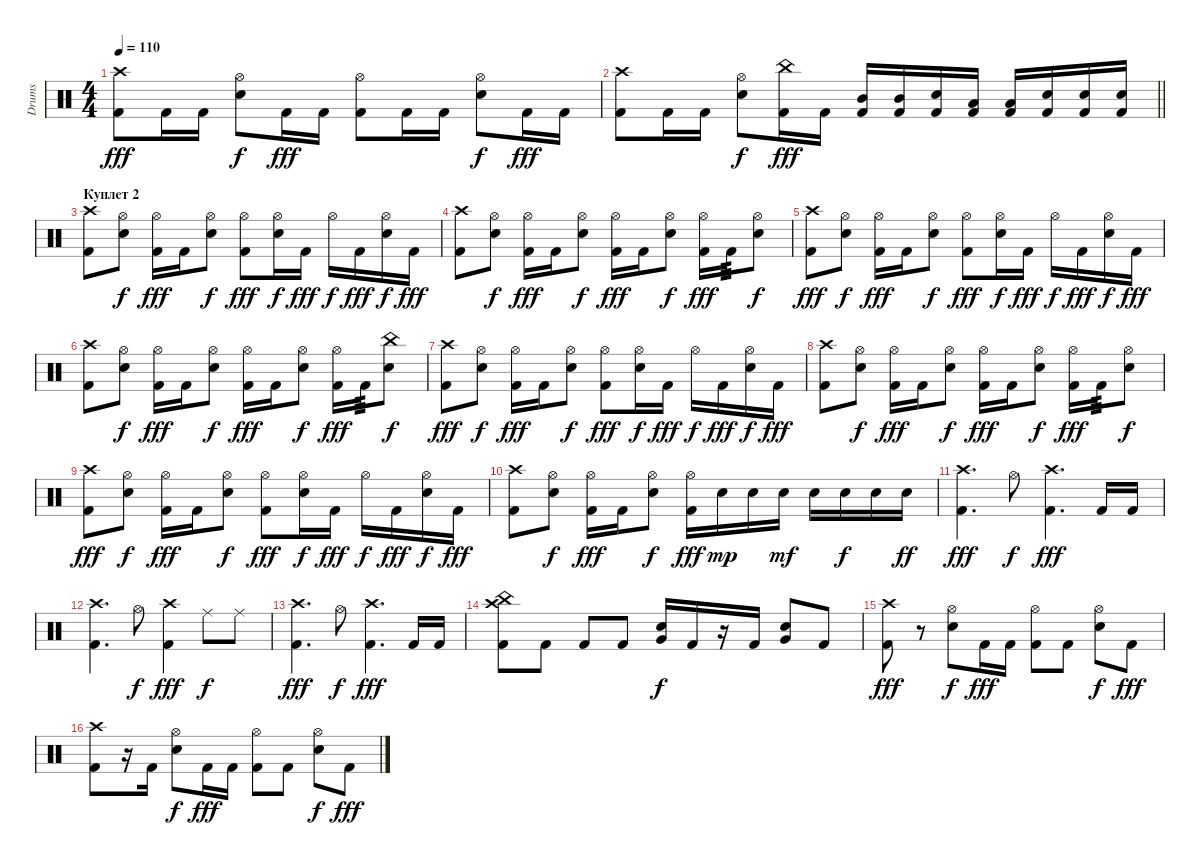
\track ("Drums" "Drums") {instrument percussion}
\staff {score}
\articulation defaults
\ts (4 4)
\tempo 110
\clef neutral
\ks c
("Crash high (hit)" "Kick (hit) 2").8{dy fff} "Kick (hit) 2".16 "Kick (hit) 2".16 ("Hi-Hat (open)" "Snare (hit) 2").8{dy f} "Kick (hit) 2".16{dy fff} "Kick (hit) 2".16 ("Hi-Hat (open)" "Kick (hit) 2").8 "Kick (hit) 2".16 "Kick (hit) 2".16 ("Hi-Hat (open)" "Snare (hit) 2").8{dy f} "Kick (hit) 2".16{dy fff} "Kick (hit) 2".16 |
\barLineRight lightlight
("Crash high (hit)" "Kick (hit) 2").8 "Kick (hit) 2".16 "Kick (hit) 2".16 ("Hi-Hat (open)" "Snare (hit) 2").8{dy f} ("China (hit)" "Kick (hit) 2").16{dy fff} "Kick (hit) 2".16 ("Mid Tom (hit)" "Kick (hit) 2").16 ("Mid Tom (hit)" "Kick (hit) 2").16 ("Snare (hit) 2" "Kick (hit) 2").16 ("Low Tom (hit)" "Kick (hit) 2").16 ("Low Tom (hit)" "Kick (hit) 2").16 ("Snare (hit) 2" "Kick (hit) 2").16 ("Snare (hit) 2" "Kick (hit) 2").16 ("Snare (hit) 2" "Kick (hit) 2").16 |
\section ("" "Куплет 2")
("Crash high (hit)" "Kick (hit) 2").8 ("Hi-Hat (open)" "Snare (hit) 2").8{dy f} ("Hi-Hat (open)" "Kick (hit) 2").16{dy fff} "Kick (hit) 2".16 ("Hi-Hat (open)" "Snare (hit) 2").8{dy f} ("Hi-Hat (open)" "Kick (hit) 2").8{dy fff} ("Hi-Hat (open)" "Snare (hit) 2").16{dy f} "Kick (hit) 2".16{dy fff} "Hi-Hat (open)".16{dy f} "Kick (hit) 2".16{dy fff} ("Hi-Hat (open)" "Snare (hit) 2").16{dy f} "Kick (hit) 2".16{dy fff} |
("Crash high (hit)" "Kick (hit) 2").8 ("Hi-Hat (open)" "Snare (hit) 2").8{dy f} ("Hi-Hat (open)" "Kick (hit) 2").16{dy fff} "Kick (hit) 2".16 ("Hi-Hat (open)" "Snare (hit) 2").8{dy f} ("Hi-Hat (open)" "Kick (hit) 2").16{dy fff} "Kick (hit) 2".16 ("Hi-Hat (open)" "Snare (hit) 2").8{dy f} ("Hi-Hat (open)" "Kick (hit) 2").16{dy fff} "Kick (hit) 2".16{tp 3} ("Hi-Hat (open)" "Snare (hit) 2").8{dy f} |
("Crash high (hit)" "Kick (hit) 2").8{dy fff} ("Hi-Hat (open)" "Snare (hit) 2").8{dy f} ("Hi-Hat (open)" "Kick (hit) 2").16{dy fff} "Kick (hit) 2".16 ("Hi-Hat (open)" "Snare (hit) 2").8{dy f} ("Hi-Hat (open)" "Kick (hit) 2").8{dy fff} ("Hi-Hat (open)" "Snare (hit) 2").16{dy f} "Kick (hit) 2".16{dy fff} "Hi-Hat (open)".16{dy f} "Kick (hit) 2".16{dy fff} ("Hi-Hat (open)" "Snare (hit) 2").16{dy f} "Kick (hit) 2".16{dy fff} |
("Crash high (hit)" "Kick (hit) 2").8 ("Hi-Hat (open)" "Snare (hit) 2").8{dy f} ("Hi-Hat (open)" "Kick (hit) 2").16{dy fff} "Kick (hit) 2".16 ("Hi-Hat (open)" "Snare (hit) 2").8{dy f} ("Hi-Hat (open)" "Kick (hit) 2").16{dy fff} "Kick (hit) 2".16 ("Hi-Hat (open)" "Snare (hit) 2").8{dy f} ("Hi-Hat (open)" "Kick (hit) 2").16{dy fff} "Kick (hit) 2".16{tp 3} ("China (hit)" "Snare (hit) 2").8{dy f} |
("Crash high (hit)" "Kick (hit) 2").8{dy fff} ("Hi-Hat (open)" "Snare (hit) 2").8{dy f} ("Hi-Hat (open)" "Kick (hit) 2").16{dy fff} "Kick (hit) 2".16 ("Hi-Hat (open)" "Snare (hit) 2").8{dy f} ("Hi-Hat (open)" "Kick (hit) 2").8{dy fff} ("Hi-Hat (open)" "Snare (hit) 2").16{dy f} "Kick (hit) 2".16{dy fff} "Hi-Hat (open)".16{dy f} "Kick (hit) 2".16{dy fff} ("Hi-Hat (open)" "Snare (hit) 2").16{dy f} "Kick (hit) 2".16{dy fff} |
("Crash high (hit)" "Kick (hit) 2").8 ("Hi-Hat (open)" "Snare (hit) 2").8{dy f} ("Hi-Hat (open)" "Kick (hit) 2").16{dy fff} "Kick (hit) 2".16 ("Hi-Hat (open)" "Snare (hit) 2").8{dy f} ("Hi-Hat (open)" "Kick (hit) 2").16{dy fff} "Kick (hit) 2".16 ("Hi-Hat (open)" "Snare (hit) 2").8{dy f} ("Hi-Hat (open)" "Kick (hit) 2").16{dy fff} "Kick (hit) 2".16{tp 3} ("Hi-Hat (open)" "Snare (hit) 2").8{dy f} |
("Crash high (hit)" "Kick (hit) 2").8{dy fff} ("Hi-Hat (open)" "Snare (hit) 2").8{dy f} ("Hi-Hat (open)" "Kick (hit) 2").16{dy fff} "Kick (hit) 2".16 ("Hi-Hat (open)" "Snare (hit) 2").8{dy f} ("Hi-Hat (open)" "Kick (hit) 2").8{dy fff} ("Hi-Hat (open)" "Snare (hit) 2").16{dy f} "Kick (hit) 2".16{dy fff} "Hi-Hat (open)".16{dy f} "Kick (hit) 2".16{dy fff} ("Hi-Hat (open)" "Snare (hit) 2").16{dy f} "Kick (hit) 2".16{dy fff} |
("Crash high (hit)" "Kick (hit) 2").8 ("Hi-Hat (open)" "Snare (hit) 2").8{dy f} ("Hi-Hat (open)" "Kick (hit) 2").16{dy fff} "Kick (hit) 2".16 ("Hi-Hat (open)" "Snare (hit) 2").8{dy f} ("Hi-Hat (open)" "Kick (hit) 2").16{dy fff} "Snare (hit) 2".16{dy mp} "Snare (hit) 2".16 "Snare (hit) 2".16{dy mf} "Snare (hit) 2".16 "Snare (hit) 2".16{dy f} "Snare (hit) 2".16 "Snare (hit) 2".16{dy ff} |
("Crash high (hit)" "Kick (hit) 2").4{d dy fff} "Hi-Hat (open)".8{dy f} ("Crash high (hit)" "Kick (hit) 2").4{d dy fff} "Kick (hit) 2".16 "Kick (hit) 2".16 |
("Crash high (hit)" "Kick (hit) 2").4{d} "Hi-Hat (open)".8{dy f} ("Crash high (hit)" "Kick (hit) 2").4{dy fff} "Ride (middle)".8{dy f} "Ride (middle)".8 |
("Crash high (hit)" "Kick (hit) 2").4{d dy fff} "Hi-Hat (open)".8{dy f} ("Crash high (hit)" "Kick (hit) 2").4{d dy fff} "Kick (hit) 2".16 "Kick (hit) 2".16 |
("Crash high (hit)" "China (hit)" "Kick (hit) 2").8 "Kick (hit) 2".8 "Kick (hit) 2".8 "Kick (hit) 2".8 ("Snare (hit) 2" "Very Low Tom (hit)").16{dy f} "Kick (hit) 2".16 r.16 "Kick (hit) 2".16 ("Snare (hit) 2" "Very Low Tom (hit)").8 "Kick (hit) 2".8 |
("Crash high (hit)" "Kick (hit) 2").8{dy fff} r.8 ("Hi-Hat (open)" "Snare (hit) 2").8{dy f} "Kick (hit) 2".16{dy fff} "Kick (hit) 2".16 ("Hi-Hat (open)" "Kick (hit) 2").8 "Kick (hit) 2".8 ("Hi-Hat (open)" "Snare (hit) 2").8{dy f} "Kick (hit) 2".8{dy fff} |
("Crash high (hit)" "Kick (hit) 2").8 r.16 "Kick (hit) 2".16 ("Hi-Hat (open)" "Snare (hit) 2").8{dy f} "Kick (hit) 2".16{dy fff} "Kick (hit) 2".16 ("Hi-Hat (open)" "Kick (hit) 2").8 "Kick (hit) 2".8 ("Hi-Hat (open)" "Snare (hit) 2").8{dy f} "Kick (hit) 2".8{dy fff}
